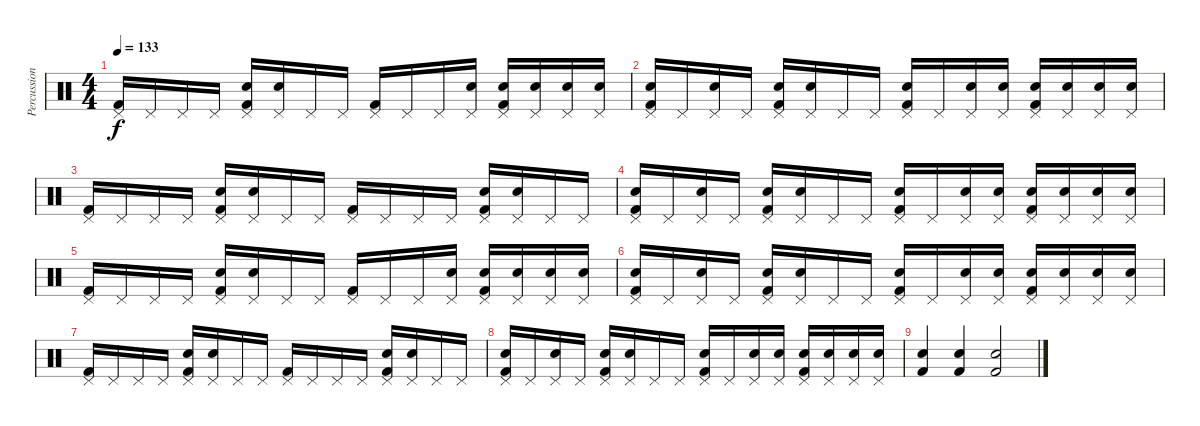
\track ("Percussions" "Percussion") {instrument percussion}
\staff {score}
\articulation defaults
\ts (4 4)
\tempo 133
\clef neutral
\ks c
("Pedal Hi-Hat (hit)" "Kick (hit) 2").16{dy f} "Pedal Hi-Hat (hit)".16 "Pedal Hi-Hat (hit)".16 "Pedal Hi-Hat (hit)".16 ("Pedal Hi-Hat (hit)" "Electric Snare (hit)" "Kick (hit) 2").16 ("Pedal Hi-Hat (hit)" "Electric Snare (hit)").16 "Pedal Hi-Hat (hit)".16 "Pedal Hi-Hat (hit)".16 ("Pedal Hi-Hat (hit)" "Kick (hit) 2").16 "Pedal Hi-Hat (hit)".16 "Pedal Hi-Hat (hit)".16 ("Pedal Hi-Hat (hit)" "Electric Snare (hit)").16 ("Pedal Hi-Hat (hit)" "Electric Snare (hit)" "Kick (hit) 2").16 ("Pedal Hi-Hat (hit)" "Electric Snare (hit)").16 ("Pedal Hi-Hat (hit)" "Electric Snare (hit)").16 ("Pedal Hi-Hat (hit)" "Electric Snare (hit)").16 |
("Pedal Hi-Hat (hit)" "Electric Snare (hit)" "Kick (hit) 2").16 "Pedal Hi-Hat (hit)".16 ("Pedal Hi-Hat (hit)" "Electric Snare (hit)").16 "Pedal Hi-Hat (hit)".16 ("Pedal Hi-Hat (hit)" "Electric Snare (hit)" "Kick (hit) 2").16 ("Pedal Hi-Hat (hit)" "Electric Snare (hit)").16 "Pedal Hi-Hat (hit)".16 "Pedal Hi-Hat (hit)".16 ("Pedal Hi-Hat (hit)" "Electric Snare (hit)" "Kick (hit) 2").16 "Pedal Hi-Hat (hit)".16 ("Pedal Hi-Hat (hit)" "Electric Snare (hit)").16 ("Pedal Hi-Hat (hit)" "Electric Snare (hit)").16 ("Pedal Hi-Hat (hit)" "Electric Snare (hit)" "Kick (hit) 2").16 ("Pedal Hi-Hat (hit)" "Electric Snare (hit)").16 ("Pedal Hi-Hat (hit)" "Electric Snare (hit)").16 ("Pedal Hi-Hat (hit)" "Electric Snare (hit)").16 |
("Pedal Hi-Hat (hit)" "Kick (hit) 2").16 "Pedal Hi-Hat (hit)".16 "Pedal Hi-Hat (hit)".16 "Pedal Hi-Hat (hit)".16 ("Pedal Hi-Hat (hit)" "Electric Snare (hit)" "Kick (hit) 2").16 ("Pedal Hi-Hat (hit)" "Electric Snare (hit)").16 "Pedal Hi-Hat (hit)".16 "Pedal Hi-Hat (hit)".16 ("Pedal Hi-Hat (hit)" "Kick (hit) 2").16 "Pedal Hi-Hat (hit)".16 "Pedal Hi-Hat (hit)".16 "Pedal Hi-Hat (hit)".16 ("Pedal Hi-Hat (hit)" "Electric Snare (hit)" "Kick (hit) 2").16 ("Pedal Hi-Hat (hit)" "Electric Snare (hit)").16 "Pedal Hi-Hat (hit)".16 "Pedal Hi-Hat (hit)".16 |
("Pedal Hi-Hat (hit)" "Electric Snare (hit)" "Kick (hit) 2").16 "Pedal Hi-Hat (hit)".16 ("Pedal Hi-Hat (hit)" "Electric Snare (hit)").16 "Pedal Hi-Hat (hit)".16 ("Pedal Hi-Hat (hit)" "Electric Snare (hit)" "Kick (hit) 2").16 ("Pedal Hi-Hat (hit)" "Electric Snare (hit)").16 "Pedal Hi-Hat (hit)".16 "Pedal Hi-Hat (hit)".16 ("Pedal Hi-Hat (hit)" "Electric Snare (hit)" "Kick (hit) 2").16 "Pedal Hi-Hat (hit)".16 ("Pedal Hi-Hat (hit)" "Electric Snare (hit)").16 ("Pedal Hi-Hat (hit)" "Electric Snare (hit)").16 ("Pedal Hi-Hat (hit)" "Electric Snare (hit)" "Kick (hit) 2").16 ("Pedal Hi-Hat (hit)" "Electric Snare (hit)").16 ("Pedal Hi-Hat (hit)" "Electric Snare (hit)").16 ("Pedal Hi-Hat (hit)" "Electric Snare (hit)").16 |
("Pedal Hi-Hat (hit)" "Kick (hit) 2").16 "Pedal Hi-Hat (hit)".16 "Pedal Hi-Hat (hit)".16 "Pedal Hi-Hat (hit)".16 ("Pedal Hi-Hat (hit)" "Electric Snare (hit)" "Kick (hit) 2").16 ("Pedal Hi-Hat (hit)" "Electric Snare (hit)").16 "Pedal Hi-Hat (hit)".16 "Pedal Hi-Hat (hit)".16 ("Pedal Hi-Hat (hit)" "Kick (hit) 2").16 "Pedal Hi-Hat (hit)".16 "Pedal Hi-Hat (hit)".16 ("Pedal Hi-Hat (hit)" "Electric Snare (hit)").16 ("Pedal Hi-Hat (hit)" "Electric Snare (hit)" "Kick (hit) 2").16 ("Pedal Hi-Hat (hit)" "Electric Snare (hit)").16 ("Pedal Hi-Hat (hit)" "Electric Snare (hit)").16 ("Pedal Hi-Hat (hit)" "Electric Snare (hit)").16 |
("Pedal Hi-Hat (hit)" "Electric Snare (hit)" "Kick (hit) 2").16 "Pedal Hi-Hat (hit)".16 ("Pedal Hi-Hat (hit)" "Electric Snare (hit)").16 "Pedal Hi-Hat (hit)".16 ("Pedal Hi-Hat (hit)" "Electric Snare (hit)" "Kick (hit) 2").16 ("Pedal Hi-Hat (hit)" "Electric Snare (hit)").16 "Pedal Hi-Hat (hit)".16 "Pedal Hi-Hat (hit)".16 ("Pedal Hi-Hat (hit)" "Electric Snare (hit)" "Kick (hit) 2").16 "Pedal Hi-Hat (hit)".16 ("Pedal Hi-Hat (hit)" "Electric Snare (hit)").16 ("Pedal Hi-Hat (hit)" "Electric Snare (hit)").16 ("Pedal Hi-Hat (hit)" "Electric Snare (hit)" "Kick (hit) 2").16 ("Pedal Hi-Hat (hit)" "Electric Snare (hit)").16 ("Pedal Hi-Hat (hit)" "Electric Snare (hit)").16 ("Pedal Hi-Hat (hit)" "Electric Snare (hit)").16 |
("Pedal Hi-Hat (hit)" "Kick (hit) 2").16 "Pedal Hi-Hat (hit)".16 "Pedal Hi-Hat (hit)".16 "Pedal Hi-Hat (hit)".16 ("Pedal Hi-Hat (hit)" "Electric Snare (hit)" "Kick (hit) 2").16 ("Pedal Hi-Hat (hit)" "Electric Snare (hit)").16 "Pedal Hi-Hat (hit)".16 "Pedal Hi-Hat (hit)".16 ("Pedal Hi-Hat (hit)" "Kick (hit) 2").16 "Pedal Hi-Hat (hit)".16 "Pedal Hi-Hat (hit)".16 "Pedal Hi-Hat (hit)".16 ("Pedal Hi-Hat (hit)" "Electric Snare (hit)" "Kick (hit) 2").16 ("Pedal Hi-Hat (hit)" "Electric Snare (hit)").16 "Pedal Hi-Hat (hit)".16 "Pedal Hi-Hat (hit)".16 |
("Pedal Hi-Hat (hit)" "Electric Snare (hit)" "Kick (hit) 2").16 "Pedal Hi-Hat (hit)".16 ("Pedal Hi-Hat (hit)" "Electric Snare (hit)").16 "Pedal Hi-Hat (hit)".16 ("Pedal Hi-Hat (hit)" "Electric Snare (hit)" "Kick (hit) 2").16 ("Pedal Hi-Hat (hit)" "Electric Snare (hit)").16 "Pedal Hi-Hat (hit)".16 "Pedal Hi-Hat (hit)".16 ("Pedal Hi-Hat (hit)" "Electric Snare (hit)" "Kick (hit) 2").16 "Pedal Hi-Hat (hit)".16 ("Pedal Hi-Hat (hit)" "Electric Snare (hit)").16 ("Pedal Hi-Hat (hit)" "Electric Snare (hit)").16 ("Pedal Hi-Hat (hit)" "Electric Snare (hit)" "Kick (hit) 2").16 ("Pedal Hi-Hat (hit)" "Electric Snare (hit)").16 ("Pedal Hi-Hat (hit)" "Electric Snare (hit)").16 ("Pedal Hi-Hat (hit)" "Electric Snare (hit)").16 |
("Electric Snare (hit)" "Kick (hit) 2").4 ("Electric Snare (hit)" "Kick (hit) 2").4 ("Electric Snare (hit)" "Kick (hit) 2").2
